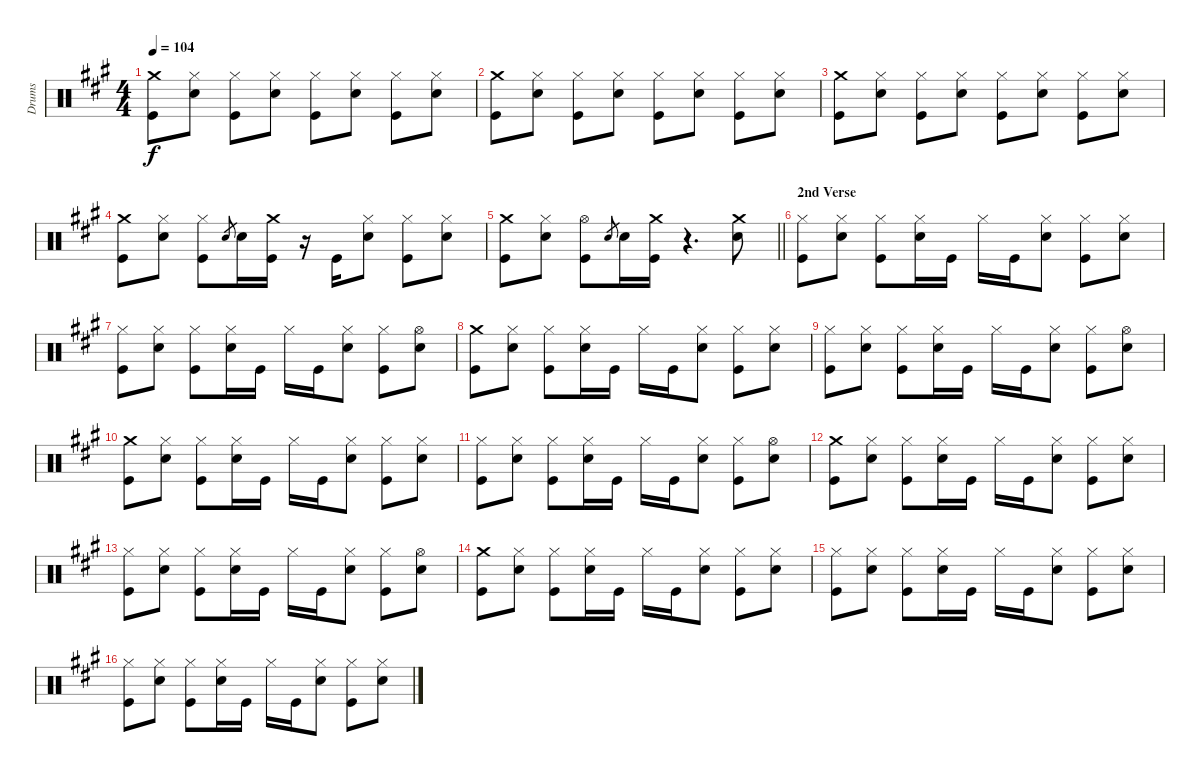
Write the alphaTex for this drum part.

\track ("Drums" "Drums") {instrument percussion}
\staff {score}
\articulation defaults
\ts (4 4)
\tempo 104
\clef neutral
\ks a
("Crash medium (hit)" "Kick (hit)").8{dy f} ("Hi-Hat (closed)" "Electric Snare (hit)").8 ("Hi-Hat (closed)" "Kick (hit)").8 ("Hi-Hat (closed)" "Electric Snare (hit)").8 ("Hi-Hat (closed)" "Kick (hit)").8 ("Hi-Hat (closed)" "Electric Snare (hit)").8 ("Hi-Hat (closed)" "Kick (hit)").8 ("Hi-Hat (closed)" "Electric Snare (hit)").8 |
("Crash medium (hit)" "Kick (hit)").8 ("Hi-Hat (closed)" "Electric Snare (hit)").8 ("Hi-Hat (closed)" "Kick (hit)").8 ("Hi-Hat (closed)" "Electric Snare (hit)").8 ("Hi-Hat (closed)" "Kick (hit)").8 ("Hi-Hat (closed)" "Electric Snare (hit)").8 ("Hi-Hat (closed)" "Kick (hit)").8 ("Hi-Hat (closed)" "Electric Snare (hit)").8 |
("Crash medium (hit)" "Kick (hit)").8 ("Hi-Hat (closed)" "Electric Snare (hit)").8 ("Hi-Hat (closed)" "Kick (hit)").8 ("Hi-Hat (closed)" "Electric Snare (hit)").8 ("Hi-Hat (closed)" "Kick (hit)").8 ("Hi-Hat (closed)" "Electric Snare (hit)").8 ("Hi-Hat (closed)" "Kick (hit)").8 ("Hi-Hat (closed)" "Electric Snare (hit)").8 |
("Crash medium (hit)" "Kick (hit)").8 ("Hi-Hat (closed)" "Electric Snare (hit)").8 ("Hi-Hat (closed)" "Kick (hit)").8 "Electric Snare (hit)"{sl}.8{gr} "Electric Snare (hit)".16 ("Crash medium (hit)" "Kick (hit)").16 r.16 "Kick (hit)".16 ("Hi-Hat (closed)" "Electric Snare (hit)").8 ("Hi-Hat (closed)" "Kick (hit)").8 ("Hi-Hat (closed)" "Electric Snare (hit)").8 |
\barLineRight lightlight
("Crash medium (hit)" "Kick (hit)").8 ("Hi-Hat (closed)" "Electric Snare (hit)").8 ("Hi-Hat (open)" "Kick (hit)").8 "Electric Snare (hit)".8{gr} "Electric Snare (hit)".16 ("Crash medium (hit)" "Kick (hit)").16 r.4{d} ("Crash medium (hit)" "Electric Snare (hit)").8 |
\section ("" "2nd Verse")
("Hi-Hat (closed)" "Kick (hit)").8 ("Hi-Hat (closed)" "Electric Snare (hit)").8 ("Hi-Hat (closed)" "Kick (hit)").8 ("Hi-Hat (closed)" "Electric Snare (hit)").16 "Kick (hit)".16 "Hi-Hat (closed)".16 "Kick (hit)".16 ("Hi-Hat (closed)" "Electric Snare (hit)").8 ("Hi-Hat (closed)" "Kick (hit)").8 ("Hi-Hat (closed)" "Electric Snare (hit)").8 |
("Hi-Hat (closed)" "Kick (hit)").8 ("Hi-Hat (closed)" "Electric Snare (hit)").8 ("Hi-Hat (closed)" "Kick (hit)").8 ("Hi-Hat (closed)" "Electric Snare (hit)").16 "Kick (hit)".16 "Hi-Hat (closed)".16 "Kick (hit)".16 ("Hi-Hat (closed)" "Electric Snare (hit)").8 ("Hi-Hat (closed)" "Kick (hit)").8 ("Hi-Hat (open)" "Electric Snare (hit)").8 |
("Crash medium (hit)" "Kick (hit)").8 ("Hi-Hat (closed)" "Electric Snare (hit)").8 ("Hi-Hat (closed)" "Kick (hit)").8 ("Hi-Hat (closed)" "Electric Snare (hit)").16 "Kick (hit)".16 "Hi-Hat (closed)".16 "Kick (hit)".16 ("Hi-Hat (closed)" "Electric Snare (hit)").8 ("Hi-Hat (closed)" "Kick (hit)").8 ("Hi-Hat (closed)" "Electric Snare (hit)").8 |
("Hi-Hat (closed)" "Kick (hit)").8 ("Hi-Hat (closed)" "Electric Snare (hit)").8 ("Hi-Hat (closed)" "Kick (hit)").8 ("Hi-Hat (closed)" "Electric Snare (hit)").16 "Kick (hit)".16 "Hi-Hat (closed)".16 "Kick (hit)".16 ("Hi-Hat (closed)" "Electric Snare (hit)").8 ("Hi-Hat (closed)" "Kick (hit)").8 ("Hi-Hat (open)" "Electric Snare (hit)").8 |
("Crash medium (hit)" "Kick (hit)").8 ("Hi-Hat (closed)" "Electric Snare (hit)").8 ("Hi-Hat (closed)" "Kick (hit)").8 ("Hi-Hat (closed)" "Electric Snare (hit)").16 "Kick (hit)".16 "Hi-Hat (closed)".16 "Kick (hit)".16 ("Hi-Hat (closed)" "Electric Snare (hit)").8 ("Hi-Hat (closed)" "Kick (hit)").8 ("Hi-Hat (closed)" "Electric Snare (hit)").8 |
("Hi-Hat (closed)" "Kick (hit)").8 ("Hi-Hat (closed)" "Electric Snare (hit)").8 ("Hi-Hat (closed)" "Kick (hit)").8 ("Hi-Hat (closed)" "Electric Snare (hit)").16 "Kick (hit)".16 "Hi-Hat (closed)".16 "Kick (hit)".16 ("Hi-Hat (closed)" "Electric Snare (hit)").8 ("Hi-Hat (closed)" "Kick (hit)").8 ("Hi-Hat (open)" "Electric Snare (hit)").8 |
("Crash medium (hit)" "Kick (hit)").8 ("Hi-Hat (closed)" "Electric Snare (hit)").8 ("Hi-Hat (closed)" "Kick (hit)").8 ("Hi-Hat (closed)" "Electric Snare (hit)").16 "Kick (hit)".16 "Hi-Hat (closed)".16 "Kick (hit)".16 ("Hi-Hat (closed)" "Electric Snare (hit)").8 ("Hi-Hat (closed)" "Kick (hit)").8 ("Hi-Hat (closed)" "Electric Snare (hit)").8 |
("Hi-Hat (closed)" "Kick (hit)").8 ("Hi-Hat (closed)" "Electric Snare (hit)").8 ("Hi-Hat (closed)" "Kick (hit)").8 ("Hi-Hat (closed)" "Electric Snare (hit)").16 "Kick (hit)".16 "Hi-Hat (closed)".16 "Kick (hit)".16 ("Hi-Hat (closed)" "Electric Snare (hit)").8 ("Hi-Hat (closed)" "Kick (hit)").8 ("Hi-Hat (open)" "Electric Snare (hit)").8 |
("Crash medium (hit)" "Kick (hit)").8 ("Hi-Hat (closed)" "Electric Snare (hit)").8 ("Hi-Hat (closed)" "Kick (hit)").8 ("Hi-Hat (closed)" "Electric Snare (hit)").16 "Kick (hit)".16 "Hi-Hat (closed)".16 "Kick (hit)".16 ("Hi-Hat (closed)" "Electric Snare (hit)").8 ("Hi-Hat (closed)" "Kick (hit)").8 ("Hi-Hat (closed)" "Electric Snare (hit)").8 |
("Hi-Hat (closed)" "Kick (hit)").8 ("Hi-Hat (closed)" "Electric Snare (hit)").8 ("Hi-Hat (closed)" "Kick (hit)").8 ("Hi-Hat (closed)" "Electric Snare (hit)").16 "Kick (hit)".16 "Hi-Hat (closed)".16 "Kick (hit)".16 ("Hi-Hat (closed)" "Electric Snare (hit)").8 ("Hi-Hat (closed)" "Kick (hit)").8 ("Hi-Hat (closed)" "Electric Snare (hit)").8 |
("Hi-Hat (closed)" "Kick (hit)").8 ("Hi-Hat (closed)" "Electric Snare (hit)").8 ("Hi-Hat (closed)" "Kick (hit)").8 ("Hi-Hat (closed)" "Electric Snare (hit)").16 "Kick (hit)".16 "Hi-Hat (closed)".16 "Kick (hit)".16 ("Hi-Hat (closed)" "Electric Snare (hit)").8 ("Hi-Hat (closed)" "Kick (hit)").8 ("Hi-Hat (closed)" "Electric Snare (hit)").8
